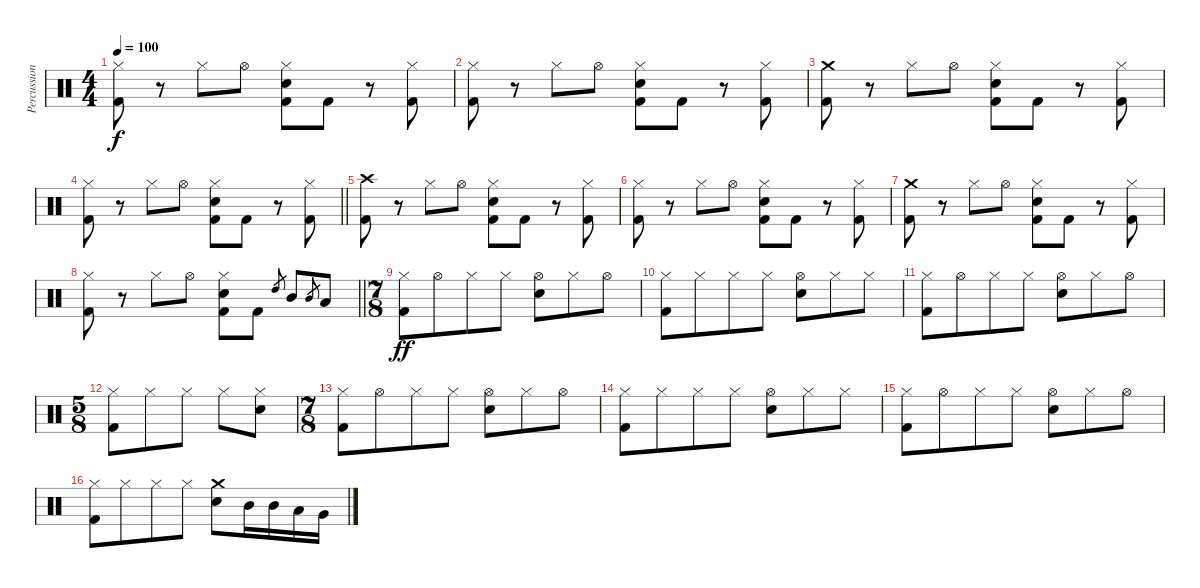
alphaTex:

\track ("Percussion" "Percussion") {instrument percussion}
\staff {score}
\articulation defaults
\ts (4 4)
\tempo 100
\clef neutral
\ks c
("Hi-Hat (closed)" "Kick (hit) 2").8{dy f} r.8 "Hi-Hat (closed)".8 "Hi-Hat (open)".8 ("Hi-Hat (closed)" "Electric Snare (hit)" "Kick (hit) 2").8 "Kick (hit) 2".8 r.8 ("Hi-Hat (closed)" "Kick (hit) 2").8 |
("Hi-Hat (closed)" "Kick (hit) 2").8 r.8 "Hi-Hat (closed)".8 "Hi-Hat (open)".8 ("Hi-Hat (closed)" "Electric Snare (hit)" "Kick (hit) 2").8 "Kick (hit) 2".8 r.8 ("Hi-Hat (closed)" "Kick (hit) 2").8 |
("Crash medium (hit)" "Kick (hit) 2").8 r.8 "Hi-Hat (closed)".8 "Hi-Hat (open)".8 ("Hi-Hat (closed)" "Electric Snare (hit)" "Kick (hit) 2").8 "Kick (hit) 2".8 r.8 ("Hi-Hat (closed)" "Kick (hit) 2").8 |
\barLineRight lightlight
("Hi-Hat (closed)" "Kick (hit) 2").8 r.8 "Hi-Hat (closed)".8 "Hi-Hat (open)".8 ("Hi-Hat (closed)" "Electric Snare (hit)" "Kick (hit) 2").8 "Kick (hit) 2".8 r.8 ("Hi-Hat (closed)" "Kick (hit) 2").8 |
("Crash high (hit)" "Kick (hit) 2").8 r.8 "Hi-Hat (closed)".8 "Hi-Hat (open)".8 ("Hi-Hat (closed)" "Electric Snare (hit)" "Kick (hit) 2").8 "Kick (hit) 2".8 r.8 ("Hi-Hat (closed)" "Kick (hit) 2").8 |
("Hi-Hat (closed)" "Kick (hit) 2").8 r.8 "Hi-Hat (closed)".8 "Hi-Hat (open)".8 ("Hi-Hat (closed)" "Electric Snare (hit)" "Kick (hit) 2").8 "Kick (hit) 2".8 r.8 ("Hi-Hat (closed)" "Kick (hit) 2").8 |
("Crash medium (hit)" "Kick (hit) 2").8 r.8 "Hi-Hat (closed)".8 "Hi-Hat (open)".8 ("Hi-Hat (closed)" "Electric Snare (hit)" "Kick (hit) 2").8 "Kick (hit) 2".8 r.8 ("Hi-Hat (closed)" "Kick (hit) 2").8 |
\barLineRight lightlight
("Hi-Hat (closed)" "Kick (hit) 2").8 r.8 "Hi-Hat (closed)".8 "Hi-Hat (open)".8 ("Hi-Hat (closed)" "Electric Snare (hit)" "Kick (hit) 2").8 "Kick (hit) 2".8 "High Tom (hit)".8{gr} "Mid Tom (hit)".8 "Mid Tom (hit)".8{gr} "Low Tom (hit)".8 |
\ts (7 8)
("Hi-Hat (closed)" "Kick (hit) 2").8{dy ff} "Hi-Hat (open)".8 "Hi-Hat (closed)".8 "Hi-Hat (closed)".8 ("Hi-Hat (open)" "Electric Snare (hit)").8 "Hi-Hat (closed)".8 "Hi-Hat (open)".8 |
("Hi-Hat (closed)" "Kick (hit) 2").8 "Hi-Hat (closed)".8 "Hi-Hat (closed)".8 "Hi-Hat (closed)".8 ("Hi-Hat (open)" "Electric Snare (hit)").8 "Hi-Hat (closed)".8 "Hi-Hat (closed)".8 |
("Hi-Hat (closed)" "Kick (hit) 2").8 "Hi-Hat (open)".8 "Hi-Hat (closed)".8 "Hi-Hat (closed)".8 ("Hi-Hat (open)" "Electric Snare (hit)").8 "Hi-Hat (closed)".8 "Hi-Hat (open)".8 |
\ts (5 8)
("Hi-Hat (closed)" "Kick (hit) 2").8 "Hi-Hat (closed)".8 "Hi-Hat (closed)".8 "Hi-Hat (closed)".8 ("Hi-Hat (closed)" "Electric Snare (hit)").8 |
\ts (7 8)
("Hi-Hat (closed)" "Kick (hit) 2").8 "Hi-Hat (open)".8 "Hi-Hat (closed)".8 "Hi-Hat (closed)".8 ("Hi-Hat (open)" "Electric Snare (hit)").8 "Hi-Hat (closed)".8 "Hi-Hat (open)".8 |
("Hi-Hat (closed)" "Kick (hit) 2").8 "Hi-Hat (closed)".8 "Hi-Hat (closed)".8 "Hi-Hat (closed)".8 ("Hi-Hat (open)" "Electric Snare (hit)").8 "Hi-Hat (closed)".8 "Hi-Hat (closed)".8 |
("Hi-Hat (closed)" "Kick (hit) 2").8 "Hi-Hat (open)".8 "Hi-Hat (closed)".8 "Hi-Hat (closed)".8 ("Hi-Hat (open)" "Electric Snare (hit)").8 "Hi-Hat (closed)".8 "Hi-Hat (open)".8 |
("Hi-Hat (closed)" "Kick (hit) 2").8 "Hi-Hat (closed)".8 "Hi-Hat (closed)".8 "Hi-Hat (closed)".8 ("Crash medium (hit)" "Electric Snare (hit)").8 "Mid Tom (hit)".16 "Mid Tom (hit)".16 "Low Tom (hit)".16 "Very Low Tom (hit)".16
